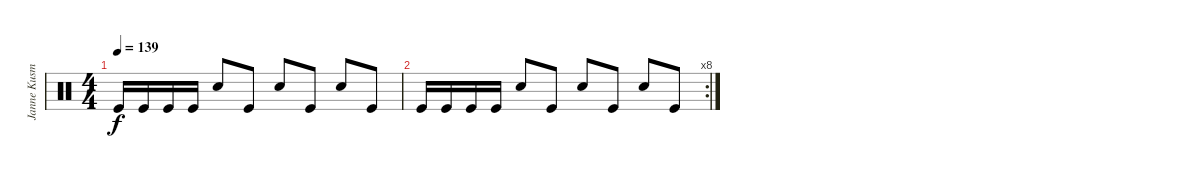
\track ("Janne Kusmin " "Janne Kusm") {instrument percussion}
\staff {score}
\articulation defaults
\ts (4 4)
\tempo 139
\clef neutral
\ks c "Kick (hit)".16{dy f} "Kick (hit)".16 "Kick (hit)".16 "Kick (hit)".16 "Snare (hit) 2".8 "Kick (hit)".8 "Snare (hit) 2".8 "Kick (hit)".8 "Snare (hit) 2".8 "Kick (hit)".8
|
\rc 8 "Kick (hit)".16 "Kick (hit)".16 "Kick (hit)".16 "Kick (hit)".16 "Snare (hit) 2".8 "Kick (hit)".8 "Snare (hit) 2".8 "Kick (hit)".8 "Snare (hit) 2".8 "Kick (hit)".8
